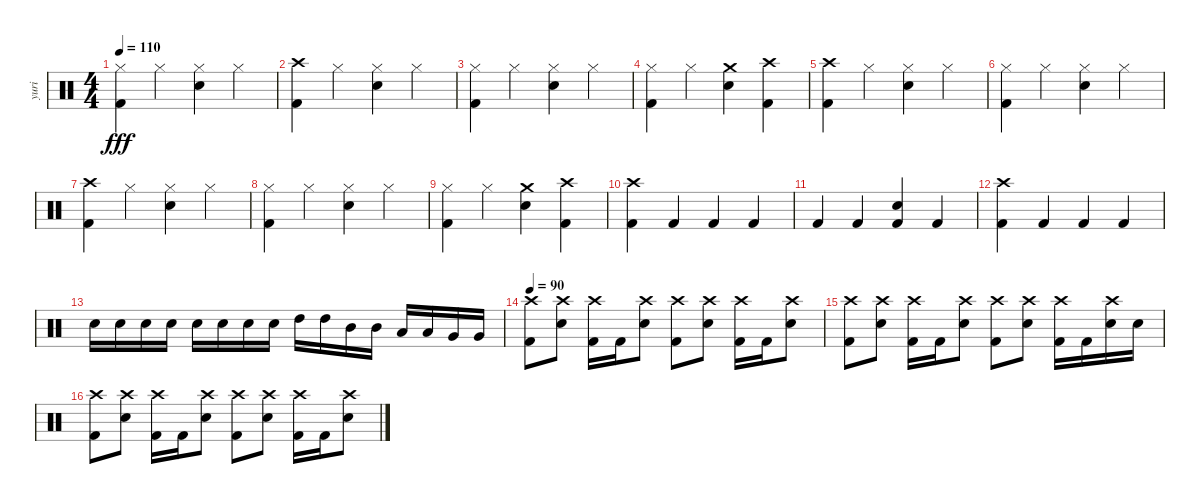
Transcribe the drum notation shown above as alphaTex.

\track ("yuri" "yuri") {instrument percussion}
\staff {score}
\articulation defaults
\ts (4 4)
\tempo 110
\clef neutral
\ks c
("Hi-Hat (closed)" "Kick (hit) 2").4{dy fff} "Hi-Hat (closed)".4 ("Hi-Hat (closed)" "Snare (hit) 2").4 "Hi-Hat (closed)".4 |
("Crash high (hit)" "Kick (hit) 2").4 "Hi-Hat (closed)".4 ("Hi-Hat (closed)" "Snare (hit) 2").4 "Hi-Hat (closed)".4 |
("Hi-Hat (closed)" "Kick (hit) 2").4 "Hi-Hat (closed)".4 ("Hi-Hat (closed)" "Snare (hit) 2").4 "Hi-Hat (closed)".4 |
("Hi-Hat (closed)" "Kick (hit) 2").4 "Hi-Hat (closed)".4 ("Crash medium (hit)" "Snare (hit) 2").4 ("Crash high (hit)" "Kick (hit) 2").4 |
("Crash high (hit)" "Kick (hit) 2").4 "Hi-Hat (closed)".4 ("Hi-Hat (closed)" "Snare (hit) 2").4 "Hi-Hat (closed)".4 |
("Hi-Hat (closed)" "Kick (hit) 2").4 "Hi-Hat (closed)".4 ("Hi-Hat (closed)" "Snare (hit) 2").4 "Hi-Hat (closed)".4 |
("Crash high (hit)" "Kick (hit) 2").4 "Hi-Hat (closed)".4 ("Hi-Hat (closed)" "Snare (hit) 2").4 "Hi-Hat (closed)".4 |
("Hi-Hat (closed)" "Kick (hit) 2").4 "Hi-Hat (closed)".4 ("Hi-Hat (closed)" "Snare (hit) 2").4 "Hi-Hat (closed)".4 |
("Hi-Hat (closed)" "Kick (hit) 2").4 "Hi-Hat (closed)".4 ("Crash medium (hit)" "Snare (hit) 2").4 ("Crash high (hit)" "Kick (hit) 2").4 |
("Crash high (hit)" "Kick (hit) 2").4 "Kick (hit) 2".4 "Kick (hit) 2".4 "Kick (hit) 2".4 |
"Kick (hit) 2".4 "Kick (hit) 2".4 ("Snare (hit) 2" "Kick (hit) 2").4 "Kick (hit) 2".4 |
("Crash high (hit)" "Kick (hit) 2").4 "Kick (hit) 2".4 "Kick (hit) 2".4 "Kick (hit) 2".4 |
"Snare (hit) 2".16 "Snare (hit) 2".16 "Snare (hit) 2".16 "Snare (hit) 2".16 "Snare (hit) 2".16 "Snare (hit) 2".16 "Snare (hit) 2".16 "Snare (hit) 2".16 "High Tom (hit)".16 "High Tom (hit)".16 "Mid Tom (hit)".16 "Mid Tom (hit)".16 "Low Tom (hit)".16 "Low Tom (hit)".16 "Very Low Tom (hit)".16 "Very Low Tom (hit)".16 |
\tempo 90
("Crash high (hit)" "Kick (hit) 2").8 ("Crash high (hit)" "Snare (hit) 2").8 ("Crash high (hit)" "Kick (hit) 2").16 "Kick (hit) 2".16 ("Crash high (hit)" "Snare (hit) 2").8 ("Crash high (hit)" "Kick (hit) 2").8 ("Crash high (hit)" "Snare (hit) 2").8 ("Crash high (hit)" "Kick (hit) 2").16 "Kick (hit) 2".16 ("Crash high (hit)" "Snare (hit) 2").8 |
("Crash high (hit)" "Kick (hit) 2").8 ("Crash high (hit)" "Snare (hit) 2").8 ("Crash high (hit)" "Kick (hit) 2").16 "Kick (hit) 2".16 ("Crash high (hit)" "Snare (hit) 2").8 ("Crash high (hit)" "Kick (hit) 2").8 ("Crash high (hit)" "Snare (hit) 2").8 ("Crash high (hit)" "Kick (hit) 2").16 "Kick (hit) 2".16 ("Crash high (hit)" "Snare (hit) 2").16 "Snare (hit) 2".16 |
("Crash high (hit)" "Kick (hit) 2").8 ("Crash high (hit)" "Snare (hit) 2").8 ("Crash high (hit)" "Kick (hit) 2").16 "Kick (hit) 2".16 ("Crash high (hit)" "Snare (hit) 2").8 ("Crash high (hit)" "Kick (hit) 2").8 ("Crash high (hit)" "Snare (hit) 2").8 ("Crash high (hit)" "Kick (hit) 2").16 "Kick (hit) 2".16 ("Crash high (hit)" "Snare (hit) 2").8
